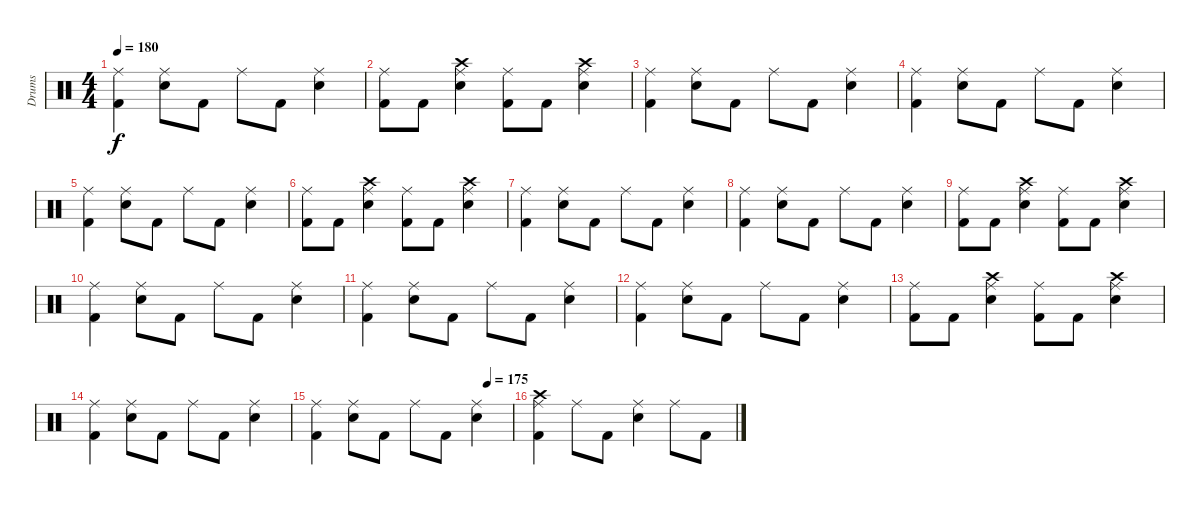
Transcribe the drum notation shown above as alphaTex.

\track ("Drums" "Drums") {instrument percussion}
\staff {score}
\articulation defaults
\ts (4 4)
\tempo 180
\clef neutral
\ks c
("Ride (middle)" "Kick (hit) 2").4{dy f} ("Ride (middle)" "Electric Snare (hit)").8 "Kick (hit) 2".8 "Ride (middle)".8 "Kick (hit) 2".8 ("Ride (middle)" "Electric Snare (hit)").4 |
("Ride (middle)" "Kick (hit) 2").8 "Kick (hit) 2".8 ("Ride (middle)" "Crash high (hit)" "Electric Snare (hit)").4 ("Ride (middle)" "Kick (hit) 2").8 "Kick (hit) 2".8 ("Ride (middle)" "Crash high (hit)" "Electric Snare (hit)").4 |
("Ride (middle)" "Kick (hit) 2").4 ("Ride (middle)" "Electric Snare (hit)").8 "Kick (hit) 2".8 "Ride (middle)".8 "Kick (hit) 2".8 ("Ride (middle)" "Electric Snare (hit)").4 |
("Ride (middle)" "Kick (hit) 2").4 ("Ride (middle)" "Electric Snare (hit)").8 "Kick (hit) 2".8 "Ride (middle)".8 "Kick (hit) 2".8 ("Ride (middle)" "Electric Snare (hit)").4 |
("Ride (middle)" "Kick (hit) 2").4 ("Ride (middle)" "Electric Snare (hit)").8 "Kick (hit) 2".8 "Ride (middle)".8 "Kick (hit) 2".8 ("Ride (middle)" "Electric Snare (hit)").4 |
("Ride (middle)" "Kick (hit) 2").8 "Kick (hit) 2".8 ("Ride (middle)" "Crash high (hit)" "Electric Snare (hit)").4 ("Ride (middle)" "Kick (hit) 2").8 "Kick (hit) 2".8 ("Ride (middle)" "Crash high (hit)" "Electric Snare (hit)").4 |
("Ride (middle)" "Kick (hit) 2").4 ("Ride (middle)" "Electric Snare (hit)").8 "Kick (hit) 2".8 "Ride (middle)".8 "Kick (hit) 2".8 ("Ride (middle)" "Electric Snare (hit)").4 |
("Ride (middle)" "Kick (hit) 2").4 ("Ride (middle)" "Electric Snare (hit)").8 "Kick (hit) 2".8 "Ride (middle)".8 "Kick (hit) 2".8 ("Ride (middle)" "Electric Snare (hit)").4 |
("Ride (middle)" "Kick (hit) 2").8 "Kick (hit) 2".8 ("Ride (middle)" "Crash high (hit)" "Electric Snare (hit)").4 ("Ride (middle)" "Kick (hit) 2").8 "Kick (hit) 2".8 ("Ride (middle)" "Crash high (hit)" "Electric Snare (hit)").4 |
("Ride (middle)" "Kick (hit) 2").4 ("Ride (middle)" "Electric Snare (hit)").8 "Kick (hit) 2".8 "Ride (middle)".8 "Kick (hit) 2".8 ("Ride (middle)" "Electric Snare (hit)").4 |
("Ride (middle)" "Kick (hit) 2").4 ("Ride (middle)" "Electric Snare (hit)").8 "Kick (hit) 2".8 "Ride (middle)".8 "Kick (hit) 2".8 ("Ride (middle)" "Electric Snare (hit)").4 |
("Ride (middle)" "Kick (hit) 2").4 ("Ride (middle)" "Electric Snare (hit)").8 "Kick (hit) 2".8 "Ride (middle)".8 "Kick (hit) 2".8 ("Ride (middle)" "Electric Snare (hit)").4 |
("Ride (middle)" "Kick (hit) 2").8 "Kick (hit) 2".8 ("Ride (middle)" "Crash high (hit)" "Electric Snare (hit)").4 ("Ride (middle)" "Kick (hit) 2").8 "Kick (hit) 2".8 ("Ride (middle)" "Crash high (hit)" "Electric Snare (hit)").4 |
("Ride (middle)" "Kick (hit) 2").4 ("Ride (middle)" "Electric Snare (hit)").8 "Kick (hit) 2".8 "Ride (middle)".8 "Kick (hit) 2".8 ("Ride (middle)" "Electric Snare (hit)").4 |
\tempo (175 0.875)
("Ride (middle)" "Kick (hit) 2").4 ("Ride (middle)" "Electric Snare (hit)").8 "Kick (hit) 2".8 "Ride (middle)".8 "Kick (hit) 2".8 ("Ride (middle)" "Electric Snare (hit)").4 |
("Ride (middle)" "Crash high (hit)" "Kick (hit) 2").4 "Ride (middle)".8 "Kick (hit) 2".8 ("Ride (middle)" "Electric Snare (hit)").4 "Ride (middle)".8 "Kick (hit) 2".8
